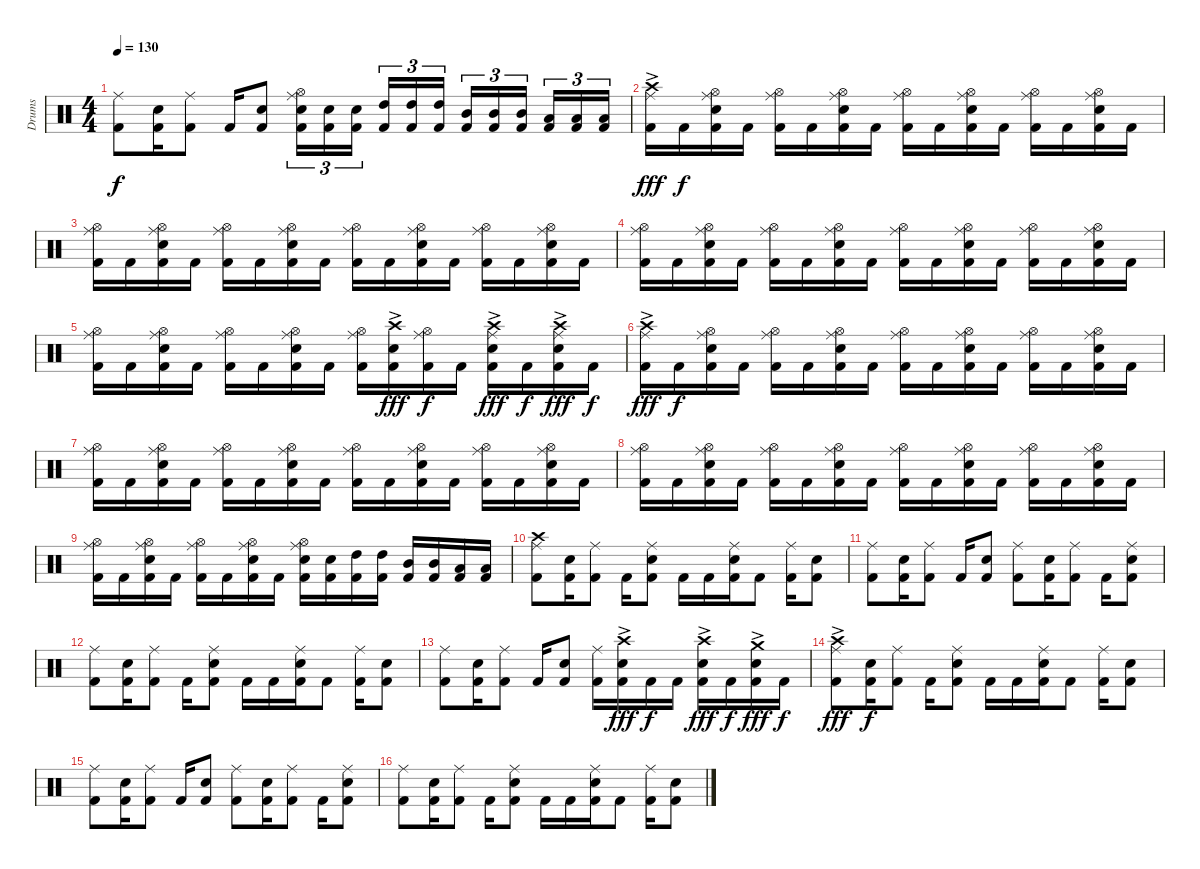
\track ("Drums" "Drums") {instrument percussion}
\staff {score}
\articulation defaults
\ts (4 4)
\tempo 130
\clef neutral
\ks c
("Ride (middle)" "Kick (hit) 2").8{dy f} ("Snare (hit) 2" "Kick (hit) 2").16 ("Ride (middle)" "Kick (hit) 2").8 "Kick (hit) 2".16 ("Snare (hit) 2" "Kick (hit) 2").8 ("Hi-Hat (open)" "Ride (middle)" "Snare (hit) 2" "Kick (hit) 2").16{tu (3 2)} ("Snare (hit) 2" "Kick (hit) 2").16{tu (3 2)} ("Snare (hit) 2" "Kick (hit) 2").16{tu (3 2)} ("High Tom (hit)" "Kick (hit) 2").16{tu (3 2)} ("High Tom (hit)" "Kick (hit) 2").16{tu (3 2)} ("High Tom (hit)" "Kick (hit) 2").16{tu (3 2)} ("Mid Tom (hit)" "Kick (hit) 2").16{tu (3 2)} ("Mid Tom (hit)" "Kick (hit) 2").16{tu (3 2)} ("Mid Tom (hit)" "Kick (hit) 2").16{tu (3 2)} ("Low Tom (hit)" "Kick (hit) 2").16{tu (3 2)} ("Low Tom (hit)" "Kick (hit) 2").16{tu (3 2)} ("Low Tom (hit)" "Kick (hit) 2").16{tu (3 2)} |
("Crash high (hit)"{ac} "Ride (middle)" "Kick (hit) 2").16{dy fff} "Kick (hit) 2".16{dy f} ("Hi-Hat (open)" "Ride (middle)" "Snare (hit) 2" "Kick (hit) 2").16 "Kick (hit) 2".16 ("Hi-Hat (open)" "Ride (middle)" "Kick (hit) 2").16 "Kick (hit) 2".16 ("Hi-Hat (open)" "Ride (middle)" "Snare (hit) 2" "Kick (hit) 2").16 "Kick (hit) 2".16 ("Hi-Hat (open)" "Ride (middle)" "Kick (hit) 2").16 "Kick (hit) 2".16 ("Hi-Hat (open)" "Ride (middle)" "Snare (hit) 2" "Kick (hit) 2").16 "Kick (hit) 2".16 ("Hi-Hat (open)" "Ride (middle)" "Kick (hit) 2").16 "Kick (hit) 2".16 ("Hi-Hat (open)" "Ride (middle)" "Snare (hit) 2" "Kick (hit) 2").16 "Kick (hit) 2".16 |
("Hi-Hat (open)" "Ride (middle)" "Kick (hit) 2").16 "Kick (hit) 2".16 ("Hi-Hat (open)" "Ride (middle)" "Snare (hit) 2" "Kick (hit) 2").16 "Kick (hit) 2".16 ("Hi-Hat (open)" "Ride (middle)" "Kick (hit) 2").16 "Kick (hit) 2".16 ("Hi-Hat (open)" "Ride (middle)" "Snare (hit) 2" "Kick (hit) 2").16 "Kick (hit) 2".16 ("Hi-Hat (open)" "Ride (middle)" "Kick (hit) 2").16 "Kick (hit) 2".16 ("Hi-Hat (open)" "Ride (middle)" "Snare (hit) 2" "Kick (hit) 2").16 "Kick (hit) 2".16 ("Hi-Hat (open)" "Ride (middle)" "Kick (hit) 2").16 "Kick (hit) 2".16 ("Hi-Hat (open)" "Ride (middle)" "Snare (hit) 2" "Kick (hit) 2").16 "Kick (hit) 2".16 |
("Hi-Hat (open)" "Ride (middle)" "Kick (hit) 2").16 "Kick (hit) 2".16 ("Hi-Hat (open)" "Ride (middle)" "Snare (hit) 2" "Kick (hit) 2").16 "Kick (hit) 2".16 ("Hi-Hat (open)" "Ride (middle)" "Kick (hit) 2").16 "Kick (hit) 2".16 ("Hi-Hat (open)" "Ride (middle)" "Snare (hit) 2" "Kick (hit) 2").16 "Kick (hit) 2".16 ("Hi-Hat (open)" "Ride (middle)" "Kick (hit) 2").16 "Kick (hit) 2".16 ("Hi-Hat (open)" "Ride (middle)" "Snare (hit) 2" "Kick (hit) 2").16 "Kick (hit) 2".16 ("Hi-Hat (open)" "Ride (middle)" "Kick (hit) 2").16 "Kick (hit) 2".16 ("Hi-Hat (open)" "Ride (middle)" "Snare (hit) 2" "Kick (hit) 2").16 "Kick (hit) 2".16 |
("Hi-Hat (open)" "Ride (middle)" "Kick (hit) 2").16 "Kick (hit) 2".16 ("Hi-Hat (open)" "Ride (middle)" "Snare (hit) 2" "Kick (hit) 2").16 "Kick (hit) 2".16 ("Hi-Hat (open)" "Ride (middle)" "Kick (hit) 2").16 "Kick (hit) 2".16 ("Hi-Hat (open)" "Ride (middle)" "Snare (hit) 2" "Kick (hit) 2").16 "Kick (hit) 2".16 ("Hi-Hat (open)" "Ride (middle)" "Kick (hit) 2").16 ("Crash high (hit)"{ac} "Snare (hit) 2" "Kick (hit) 2").16{dy fff} ("Hi-Hat (open)" "Ride (middle)" "Kick (hit) 2").16{dy f} "Kick (hit) 2".16 ("Crash high (hit)"{ac} "Ride (middle)" "Snare (hit) 2" "Kick (hit) 2").16{dy fff} "Kick (hit) 2".16{dy f} ("Crash high (hit)"{ac} "Ride (middle)" "Snare (hit) 2" "Kick (hit) 2").16{dy fff} "Kick (hit) 2".16{dy f} |
("Crash high (hit)"{ac} "Ride (middle)" "Kick (hit) 2").16{dy fff} "Kick (hit) 2".16{dy f} ("Hi-Hat (open)" "Ride (middle)" "Snare (hit) 2" "Kick (hit) 2").16 "Kick (hit) 2".16 ("Hi-Hat (open)" "Ride (middle)" "Kick (hit) 2").16 "Kick (hit) 2".16 ("Hi-Hat (open)" "Ride (middle)" "Snare (hit) 2" "Kick (hit) 2").16 "Kick (hit) 2".16 ("Hi-Hat (open)" "Ride (middle)" "Kick (hit) 2").16 "Kick (hit) 2".16 ("Hi-Hat (open)" "Ride (middle)" "Snare (hit) 2" "Kick (hit) 2").16 "Kick (hit) 2".16 ("Hi-Hat (open)" "Ride (middle)" "Kick (hit) 2").16 "Kick (hit) 2".16 ("Hi-Hat (open)" "Ride (middle)" "Snare (hit) 2" "Kick (hit) 2").16 "Kick (hit) 2".16 |
("Hi-Hat (open)" "Ride (middle)" "Kick (hit) 2").16 "Kick (hit) 2".16 ("Hi-Hat (open)" "Ride (middle)" "Snare (hit) 2" "Kick (hit) 2").16 "Kick (hit) 2".16 ("Hi-Hat (open)" "Ride (middle)" "Kick (hit) 2").16 "Kick (hit) 2".16 ("Hi-Hat (open)" "Ride (middle)" "Snare (hit) 2" "Kick (hit) 2").16 "Kick (hit) 2".16 ("Hi-Hat (open)" "Ride (middle)" "Kick (hit) 2").16 "Kick (hit) 2".16 ("Hi-Hat (open)" "Ride (middle)" "Snare (hit) 2" "Kick (hit) 2").16 "Kick (hit) 2".16 ("Hi-Hat (open)" "Ride (middle)" "Kick (hit) 2").16 "Kick (hit) 2".16 ("Hi-Hat (open)" "Ride (middle)" "Snare (hit) 2" "Kick (hit) 2").16 "Kick (hit) 2".16 |
("Hi-Hat (open)" "Ride (middle)" "Kick (hit) 2").16 "Kick (hit) 2".16 ("Hi-Hat (open)" "Ride (middle)" "Snare (hit) 2" "Kick (hit) 2").16 "Kick (hit) 2".16 ("Hi-Hat (open)" "Ride (middle)" "Kick (hit) 2").16 "Kick (hit) 2".16 ("Hi-Hat (open)" "Ride (middle)" "Snare (hit) 2" "Kick (hit) 2").16 "Kick (hit) 2".16 ("Hi-Hat (open)" "Ride (middle)" "Kick (hit) 2").16 "Kick (hit) 2".16 ("Hi-Hat (open)" "Ride (middle)" "Snare (hit) 2" "Kick (hit) 2").16 "Kick (hit) 2".16 ("Hi-Hat (open)" "Ride (middle)" "Kick (hit) 2").16 "Kick (hit) 2".16 ("Hi-Hat (open)" "Ride (middle)" "Snare (hit) 2" "Kick (hit) 2").16 "Kick (hit) 2".16 |
("Hi-Hat (open)" "Ride (middle)" "Kick (hit) 2").16 "Kick (hit) 2".16 ("Hi-Hat (open)" "Ride (middle)" "Snare (hit) 2" "Kick (hit) 2").16 "Kick (hit) 2".16 ("Hi-Hat (open)" "Ride (middle)" "Kick (hit) 2").16 "Kick (hit) 2".16 ("Hi-Hat (open)" "Ride (middle)" "Snare (hit) 2" "Kick (hit) 2").16 "Kick (hit) 2".16 ("Hi-Hat (open)" "Ride (middle)" "Snare (hit) 2" "Kick (hit) 2").16 ("Snare (hit) 2" "Kick (hit) 2").16 ("High Tom (hit)" "Kick (hit) 2").16 ("High Tom (hit)" "Kick (hit) 2").16 ("Mid Tom (hit)" "Kick (hit) 2").16 ("Mid Tom (hit)" "Kick (hit) 2").16 ("Low Tom (hit)" "Kick (hit) 2").16 ("Low Tom (hit)" "Kick (hit) 2").16 |
("Crash high (hit)" "Ride (middle)" "Kick (hit) 2").8 ("Snare (hit) 2" "Kick (hit) 2").16 ("Ride (middle)" "Kick (hit) 2").8 "Kick (hit) 2".16 ("Ride (middle)" "Snare (hit) 2" "Kick (hit) 2").8 "Kick (hit) 2".16 "Kick (hit) 2".16 ("Ride (middle)" "Snare (hit) 2" "Kick (hit) 2").16 "Kick (hit) 2".8 ("Ride (middle)" "Kick (hit) 2").16 ("Snare (hit) 2" "Kick (hit) 2").8 |
("Ride (middle)" "Kick (hit) 2").8 ("Snare (hit) 2" "Kick (hit) 2").16 ("Ride (middle)" "Kick (hit) 2").8 "Kick (hit) 2".16 ("Snare (hit) 2" "Kick (hit) 2").8 ("Ride (middle)" "Kick (hit) 2").8 ("Snare (hit) 2" "Kick (hit) 2").16 ("Ride (middle)" "Kick (hit) 2").8 "Kick (hit) 2".16 ("Ride (middle)" "Snare (hit) 2" "Kick (hit) 2").8 |
("Ride (middle)" "Kick (hit) 2").8 ("Snare (hit) 2" "Kick (hit) 2").16 ("Ride (middle)" "Kick (hit) 2").8 "Kick (hit) 2".16 ("Ride (middle)" "Snare (hit) 2" "Kick (hit) 2").8 "Kick (hit) 2".16 "Kick (hit) 2".16 ("Ride (middle)" "Snare (hit) 2" "Kick (hit) 2").16 "Kick (hit) 2".8 ("Ride (middle)" "Kick (hit) 2").16 ("Snare (hit) 2" "Kick (hit) 2").8 |
("Ride (middle)" "Kick (hit) 2").8 ("Snare (hit) 2" "Kick (hit) 2").16 ("Ride (middle)" "Kick (hit) 2").8 "Kick (hit) 2".16 ("Snare (hit) 2" "Kick (hit) 2").8 ("Ride (middle)" "Kick (hit) 2").16 ("Crash high (hit)"{ac} "Snare (hit) 2" "Kick (hit) 2").16{dy fff} "Kick (hit) 2".16{dy f} "Kick (hit) 2".16 ("Crash high (hit)"{ac} "Snare (hit) 2" "Kick (hit) 2").16{dy fff} "Kick (hit) 2".16{dy f} ("Crash medium (hit)"{ac} "Snare (hit) 2" "Kick (hit) 2").16{dy fff} "Kick (hit) 2".16{dy f} |
("Crash high (hit)"{ac} "Ride (middle)" "Kick (hit) 2").8{dy fff} ("Snare (hit) 2" "Kick (hit) 2").16{dy f} ("Ride (middle)" "Kick (hit) 2").8 "Kick (hit) 2".16 ("Ride (middle)" "Snare (hit) 2" "Kick (hit) 2").8 "Kick (hit) 2".16 "Kick (hit) 2".16 ("Ride (middle)" "Snare (hit) 2" "Kick (hit) 2").16 "Kick (hit) 2".8 ("Ride (middle)" "Kick (hit) 2").16 ("Snare (hit) 2" "Kick (hit) 2").8 |
("Ride (middle)" "Kick (hit) 2").8 ("Snare (hit) 2" "Kick (hit) 2").16 ("Ride (middle)" "Kick (hit) 2").8 "Kick (hit) 2".16 ("Snare (hit) 2" "Kick (hit) 2").8 ("Ride (middle)" "Kick (hit) 2").8 ("Snare (hit) 2" "Kick (hit) 2").16 ("Ride (middle)" "Kick (hit) 2").8 "Kick (hit) 2".16 ("Ride (middle)" "Snare (hit) 2" "Kick (hit) 2").8 |
("Ride (middle)" "Kick (hit) 2").8 ("Snare (hit) 2" "Kick (hit) 2").16 ("Ride (middle)" "Kick (hit) 2").8 "Kick (hit) 2".16 ("Ride (middle)" "Snare (hit) 2" "Kick (hit) 2").8 "Kick (hit) 2".16 "Kick (hit) 2".16 ("Ride (middle)" "Snare (hit) 2" "Kick (hit) 2").16 "Kick (hit) 2".8 ("Ride (middle)" "Kick (hit) 2").16 ("Snare (hit) 2" "Kick (hit) 2").8
